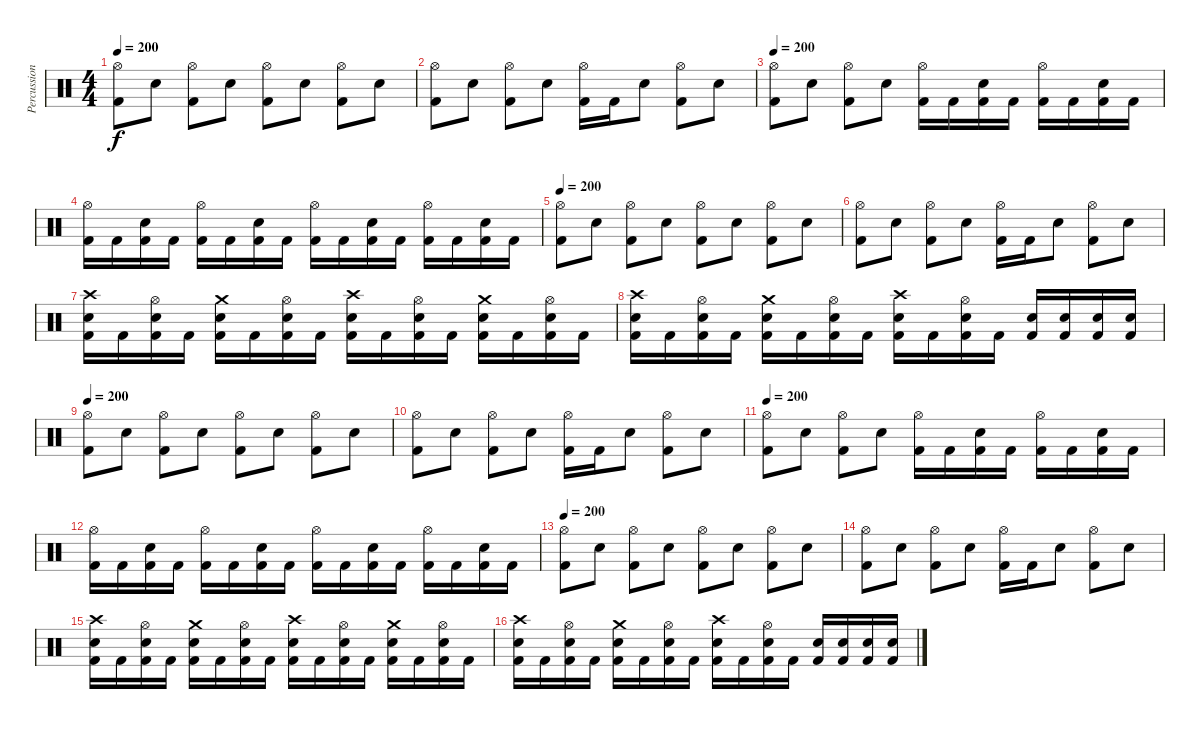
\track ("Percussion" "Percussion") {instrument percussion}
\staff {score}
\articulation defaults
\ts (4 4)
\tempo 200
\clef neutral
\ks c
("Hi-Hat (open)" "Kick (hit) 2").8{dy f} "Electric Snare (hit)".8 ("Hi-Hat (open)" "Kick (hit) 2").8 "Electric Snare (hit)".8 ("Hi-Hat (open)" "Kick (hit) 2").8 "Electric Snare (hit)".8 ("Hi-Hat (open)" "Kick (hit) 2").8 "Electric Snare (hit)".8 |
("Hi-Hat (open)" "Kick (hit) 2").8 "Electric Snare (hit)".8 ("Hi-Hat (open)" "Kick (hit) 2").8 "Electric Snare (hit)".8 ("Hi-Hat (open)" "Kick (hit) 2").16 "Kick (hit) 2".16 "Electric Snare (hit)".8 ("Hi-Hat (open)" "Kick (hit) 2").8 "Electric Snare (hit)".8 |
\tempo 200
("Hi-Hat (open)" "Kick (hit) 2").8 "Electric Snare (hit)".8 ("Hi-Hat (open)" "Kick (hit) 2").8 "Electric Snare (hit)".8 ("Hi-Hat (open)" "Kick (hit) 2").16 "Kick (hit) 2".16 ("Electric Snare (hit)" "Kick (hit) 2").16 "Kick (hit) 2".16 ("Hi-Hat (open)" "Kick (hit) 2").16 "Kick (hit) 2".16 ("Electric Snare (hit)" "Kick (hit) 2").16 "Kick (hit) 2".16 |
("Hi-Hat (open)" "Kick (hit) 2").16 "Kick (hit) 2".16 ("Electric Snare (hit)" "Kick (hit) 2").16 "Kick (hit) 2".16 ("Hi-Hat (open)" "Kick (hit) 2").16 "Kick (hit) 2".16 ("Electric Snare (hit)" "Kick (hit) 2").16 "Kick (hit) 2".16 ("Hi-Hat (open)" "Kick (hit) 2").16 "Kick (hit) 2".16 ("Electric Snare (hit)" "Kick (hit) 2").16 "Kick (hit) 2".16 ("Hi-Hat (open)" "Kick (hit) 2").16 "Kick (hit) 2".16 ("Electric Snare (hit)" "Kick (hit) 2").16 "Kick (hit) 2".16 |
\tempo 200
("Hi-Hat (open)" "Kick (hit) 2").8 "Electric Snare (hit)".8 ("Hi-Hat (open)" "Kick (hit) 2").8 "Electric Snare (hit)".8 ("Hi-Hat (open)" "Kick (hit) 2").8 "Electric Snare (hit)".8 ("Hi-Hat (open)" "Kick (hit) 2").8 "Electric Snare (hit)".8 |
("Hi-Hat (open)" "Kick (hit) 2").8 "Electric Snare (hit)".8 ("Hi-Hat (open)" "Kick (hit) 2").8 "Electric Snare (hit)".8 ("Hi-Hat (open)" "Kick (hit) 2").16 "Kick (hit) 2".16 "Electric Snare (hit)".8 ("Hi-Hat (open)" "Kick (hit) 2").8 "Electric Snare (hit)".8 |
("Crash high (hit)" "Electric Snare (hit)" "Kick (hit) 2").16 "Kick (hit) 2".16 ("Hi-Hat (open)" "Electric Snare (hit)" "Kick (hit) 2").16 "Kick (hit) 2".16 ("Crash medium (hit)" "Electric Snare (hit)" "Kick (hit) 2").16 "Kick (hit) 2".16 ("Hi-Hat (open)" "Electric Snare (hit)" "Kick (hit) 2").16 "Kick (hit) 2".16 ("Crash high (hit)" "Electric Snare (hit)" "Kick (hit) 2").16 "Kick (hit) 2".16 ("Hi-Hat (open)" "Electric Snare (hit)" "Kick (hit) 2").16 "Kick (hit) 2".16 ("Crash medium (hit)" "Electric Snare (hit)" "Kick (hit) 2").16 "Kick (hit) 2".16 ("Hi-Hat (open)" "Electric Snare (hit)" "Kick (hit) 2").16 "Kick (hit) 2".16 |
("Crash high (hit)" "Electric Snare (hit)" "Kick (hit) 2").16 "Kick (hit) 2".16 ("Hi-Hat (open)" "Electric Snare (hit)" "Kick (hit) 2").16 "Kick (hit) 2".16 ("Crash medium (hit)" "Electric Snare (hit)" "Kick (hit) 2").16 "Kick (hit) 2".16 ("Hi-Hat (open)" "Electric Snare (hit)" "Kick (hit) 2").16 "Kick (hit) 2".16 ("Crash high (hit)" "Electric Snare (hit)" "Kick (hit) 2").16 "Kick (hit) 2".16 ("Hi-Hat (open)" "Electric Snare (hit)" "Kick (hit) 2").16 "Kick (hit) 2".16 ("Electric Snare (hit)" "Kick (hit) 2").16 ("Electric Snare (hit)" "Kick (hit) 2").16 ("Electric Snare (hit)" "Kick (hit) 2").16 ("Electric Snare (hit)" "Kick (hit) 2").16 |
\tempo 200
("Hi-Hat (open)" "Kick (hit) 2").8 "Electric Snare (hit)".8 ("Hi-Hat (open)" "Kick (hit) 2").8 "Electric Snare (hit)".8 ("Hi-Hat (open)" "Kick (hit) 2").8 "Electric Snare (hit)".8 ("Hi-Hat (open)" "Kick (hit) 2").8 "Electric Snare (hit)".8 |
("Hi-Hat (open)" "Kick (hit) 2").8 "Electric Snare (hit)".8 ("Hi-Hat (open)" "Kick (hit) 2").8 "Electric Snare (hit)".8 ("Hi-Hat (open)" "Kick (hit) 2").16 "Kick (hit) 2".16 "Electric Snare (hit)".8 ("Hi-Hat (open)" "Kick (hit) 2").8 "Electric Snare (hit)".8 |
\tempo 200
("Hi-Hat (open)" "Kick (hit) 2").8 "Electric Snare (hit)".8 ("Hi-Hat (open)" "Kick (hit) 2").8 "Electric Snare (hit)".8 ("Hi-Hat (open)" "Kick (hit) 2").16 "Kick (hit) 2".16 ("Electric Snare (hit)" "Kick (hit) 2").16 "Kick (hit) 2".16 ("Hi-Hat (open)" "Kick (hit) 2").16 "Kick (hit) 2".16 ("Electric Snare (hit)" "Kick (hit) 2").16 "Kick (hit) 2".16 |
("Hi-Hat (open)" "Kick (hit) 2").16 "Kick (hit) 2".16 ("Electric Snare (hit)" "Kick (hit) 2").16 "Kick (hit) 2".16 ("Hi-Hat (open)" "Kick (hit) 2").16 "Kick (hit) 2".16 ("Electric Snare (hit)" "Kick (hit) 2").16 "Kick (hit) 2".16 ("Hi-Hat (open)" "Kick (hit) 2").16 "Kick (hit) 2".16 ("Electric Snare (hit)" "Kick (hit) 2").16 "Kick (hit) 2".16 ("Hi-Hat (open)" "Kick (hit) 2").16 "Kick (hit) 2".16 ("Electric Snare (hit)" "Kick (hit) 2").16 "Kick (hit) 2".16 |
\tempo 200
("Hi-Hat (open)" "Kick (hit) 2").8 "Electric Snare (hit)".8 ("Hi-Hat (open)" "Kick (hit) 2").8 "Electric Snare (hit)".8 ("Hi-Hat (open)" "Kick (hit) 2").8 "Electric Snare (hit)".8 ("Hi-Hat (open)" "Kick (hit) 2").8 "Electric Snare (hit)".8 |
("Hi-Hat (open)" "Kick (hit) 2").8 "Electric Snare (hit)".8 ("Hi-Hat (open)" "Kick (hit) 2").8 "Electric Snare (hit)".8 ("Hi-Hat (open)" "Kick (hit) 2").16 "Kick (hit) 2".16 "Electric Snare (hit)".8 ("Hi-Hat (open)" "Kick (hit) 2").8 "Electric Snare (hit)".8 |
("Crash high (hit)" "Electric Snare (hit)" "Kick (hit) 2").16 "Kick (hit) 2".16 ("Hi-Hat (open)" "Electric Snare (hit)" "Kick (hit) 2").16 "Kick (hit) 2".16 ("Crash medium (hit)" "Electric Snare (hit)" "Kick (hit) 2").16 "Kick (hit) 2".16 ("Hi-Hat (open)" "Electric Snare (hit)" "Kick (hit) 2").16 "Kick (hit) 2".16 ("Crash high (hit)" "Electric Snare (hit)" "Kick (hit) 2").16 "Kick (hit) 2".16 ("Hi-Hat (open)" "Electric Snare (hit)" "Kick (hit) 2").16 "Kick (hit) 2".16 ("Crash medium (hit)" "Electric Snare (hit)" "Kick (hit) 2").16 "Kick (hit) 2".16 ("Hi-Hat (open)" "Electric Snare (hit)" "Kick (hit) 2").16 "Kick (hit) 2".16 |
("Crash high (hit)" "Electric Snare (hit)" "Kick (hit) 2").16 "Kick (hit) 2".16 ("Hi-Hat (open)" "Electric Snare (hit)" "Kick (hit) 2").16 "Kick (hit) 2".16 ("Crash medium (hit)" "Electric Snare (hit)" "Kick (hit) 2").16 "Kick (hit) 2".16 ("Hi-Hat (open)" "Electric Snare (hit)" "Kick (hit) 2").16 "Kick (hit) 2".16 ("Crash high (hit)" "Electric Snare (hit)" "Kick (hit) 2").16 "Kick (hit) 2".16 ("Hi-Hat (open)" "Electric Snare (hit)" "Kick (hit) 2").16 "Kick (hit) 2".16 ("Electric Snare (hit)" "Kick (hit) 2").16 ("Electric Snare (hit)" "Kick (hit) 2").16 ("Electric Snare (hit)" "Kick (hit) 2").16 ("Electric Snare (hit)" "Kick (hit) 2").16
